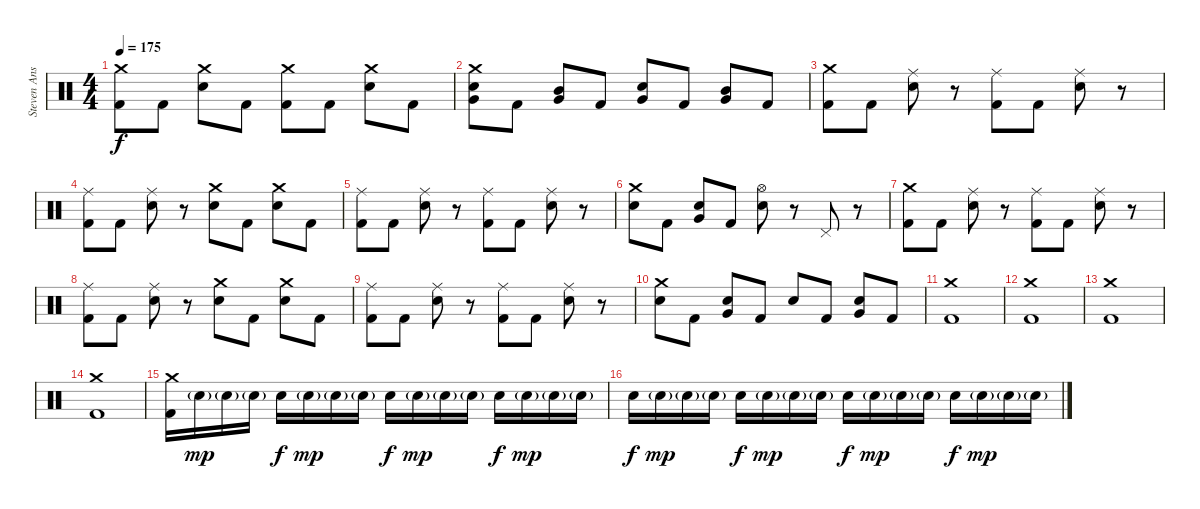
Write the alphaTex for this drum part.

\track ("Steven Ansell" "Steven Ans") {instrument percussion}
\staff {score}
\articulation defaults
\ts (4 4)
\tempo 175
\clef neutral
\ks c
("Crash medium (hit)" "Kick (hit) 2").8{dy f} "Kick (hit) 2".8 ("Crash medium (hit)" "Electric Snare (hit)").8 "Kick (hit) 2".8 ("Crash medium (hit)" "Kick (hit) 2").8 "Kick (hit) 2".8 ("Crash medium (hit)" "Electric Snare (hit)").8 "Kick (hit) 2".8 |
("Crash medium (hit)" "Electric Snare (hit)" "Very Low Tom (hit)").8 "Kick (hit) 2".8 ("Mid Tom (hit)" "Very Low Tom (hit)").8 "Kick (hit) 2".8 ("Electric Snare (hit)" "Very Low Tom (hit)").8 "Kick (hit) 2".8 ("Mid Tom (hit)" "Very Low Tom (hit)").8 "Kick (hit) 2".8 |
("Crash medium (hit)" "Kick (hit) 2").8 "Kick (hit) 2".8 ("Ride (middle)" "Electric Snare (hit)").8 r.8 ("Ride (middle)" "Kick (hit) 2").8 "Kick (hit) 2".8 ("Ride (middle)" "Electric Snare (hit)").8 r.8 |
("Ride (middle)" "Kick (hit) 2").8 "Kick (hit) 2".8 ("Ride (middle)" "Electric Snare (hit)").8 r.8 ("Crash medium (hit)" "Electric Snare (hit)").8 "Kick (hit) 2".8 ("Crash medium (hit)" "Electric Snare (hit)").8 "Kick (hit) 2".8 |
("Ride (middle)" "Kick (hit) 2").8 "Kick (hit) 2".8 ("Ride (middle)" "Electric Snare (hit)").8 r.8 ("Ride (middle)" "Kick (hit) 2").8 "Kick (hit) 2".8 ("Ride (middle)" "Electric Snare (hit)").8 r.8 |
("Crash medium (hit)" "Electric Snare (hit)").8 "Kick (hit) 2".8 ("Electric Snare (hit)" "Very Low Tom (hit)").8 "Kick (hit) 2".8 ("Hi-Hat (open)" "Electric Snare (hit)").8 r.8 "Pedal Hi-Hat (hit)".8 r.8 |
("Crash medium (hit)" "Kick (hit) 2").8 "Kick (hit) 2".8 ("Ride (middle)" "Electric Snare (hit)").8 r.8 ("Ride (middle)" "Kick (hit) 2").8 "Kick (hit) 2".8 ("Ride (middle)" "Electric Snare (hit)").8 r.8 |
("Ride (middle)" "Kick (hit) 2").8 "Kick (hit) 2".8 ("Ride (middle)" "Electric Snare (hit)").8 r.8 ("Crash medium (hit)" "Electric Snare (hit)").8 "Kick (hit) 2".8 ("Crash medium (hit)" "Electric Snare (hit)").8 "Kick (hit) 2".8 |
("Ride (middle)" "Kick (hit) 2").8 "Kick (hit) 2".8 ("Ride (middle)" "Electric Snare (hit)").8 r.8 ("Ride (middle)" "Kick (hit) 2").8 "Kick (hit) 2".8 ("Ride (middle)" "Electric Snare (hit)").8 r.8 |
("Crash medium (hit)" "Electric Snare (hit)").8 "Kick (hit) 2".8 ("Electric Snare (hit)" "Very Low Tom (hit)").8 "Kick (hit) 2".8 "Electric Snare (hit)".8 "Kick (hit) 2".8 ("Electric Snare (hit)" "Very Low Tom (hit)").8 "Kick (hit) 2".8 |
("Crash medium (hit)" "Kick (hit) 2").1 |
("Crash medium (hit)" "Kick (hit) 2").1 |
("Crash medium (hit)" "Kick (hit) 2").1 |
("Crash medium (hit)" "Kick (hit) 2").1 |
("Crash medium (hit)" "Kick (hit) 2").16 "Electric Snare (hit)"{g}.16{dy mp} "Electric Snare (hit)"{g}.16 "Electric Snare (hit)"{g}.16 "Electric Snare (hit)".16{dy f} "Electric Snare (hit)"{g}.16{dy mp} "Electric Snare (hit)"{g}.16 "Electric Snare (hit)"{g}.16 "Electric Snare (hit)".16{dy f} "Electric Snare (hit)"{g}.16{dy mp} "Electric Snare (hit)"{g}.16 "Electric Snare (hit)"{g}.16 "Electric Snare (hit)".16{dy f} "Electric Snare (hit)"{g}.16{dy mp} "Electric Snare (hit)"{g}.16 "Electric Snare (hit)"{g}.16 |
"Electric Snare (hit)".16{dy f} "Electric Snare (hit)"{g}.16{dy mp} "Electric Snare (hit)"{g}.16 "Electric Snare (hit)"{g}.16 "Electric Snare (hit)".16{dy f} "Electric Snare (hit)"{g}.16{dy mp} "Electric Snare (hit)"{g}.16 "Electric Snare (hit)"{g}.16 "Electric Snare (hit)".16{dy f} "Electric Snare (hit)"{g}.16{dy mp} "Electric Snare (hit)"{g}.16 "Electric Snare (hit)"{g}.16 "Electric Snare (hit)".16{dy f} "Electric Snare (hit)"{g}.16{dy mp} "Electric Snare (hit)"{g}.16 "Electric Snare (hit)"{g}.16
